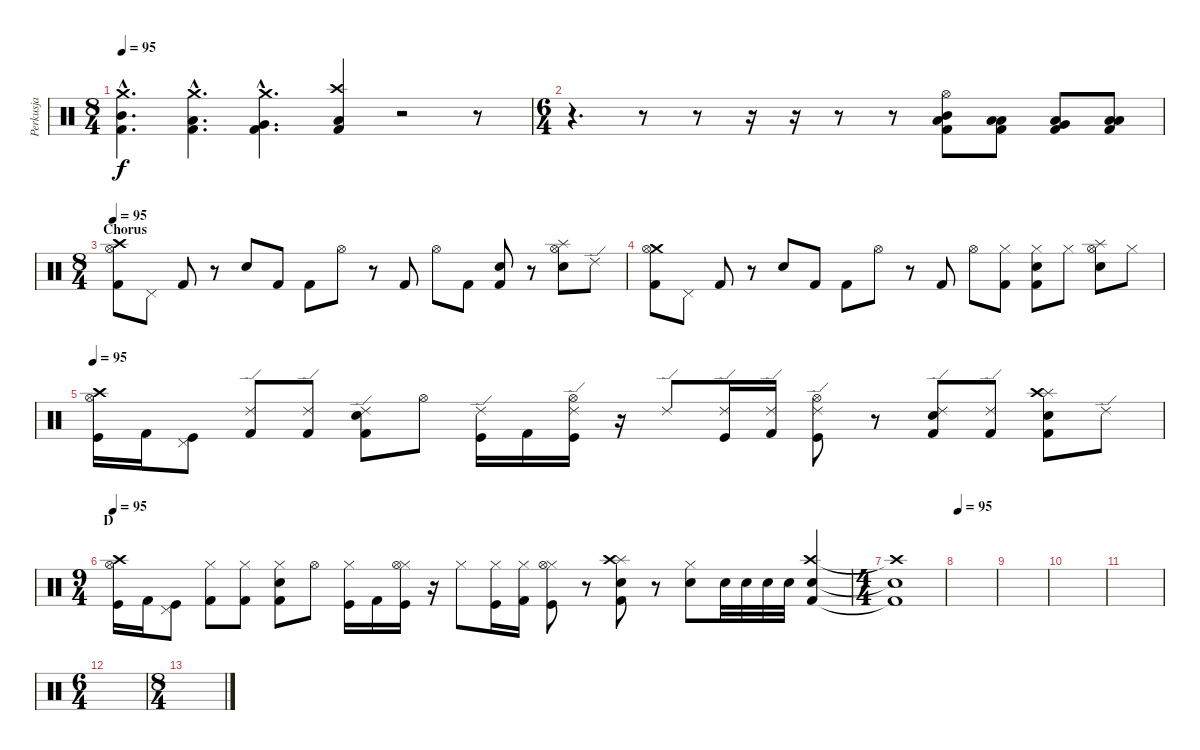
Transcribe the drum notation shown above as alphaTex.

\track ("Perkusja" "Perkusja") {instrument percussion}
\staff {score}
\articulation defaults
\ts (8 4)
\tempo 95
\clef neutral
\ks c
("Crash medium (hit)"{hac} "Mid Tom (hit)"{hac} "Kick (hit) 2"{hac}).4{d dy f} ("Crash medium (hit)"{hac} "Low Tom (hit)"{hac} "Kick (hit) 2"{hac}).4{d} ("Crash medium (hit)"{hac} "Very Low Tom (hit)"{hac} "Kick (hit) 2"{hac}).4{d} ("Crash high (hit)" "Low Floor Tom (hit)" "Kick (hit) 2").4 r.2 r.8 |
\ts (6 4)
r.4{d} r.8 r.8 r.16 r.16 r.8 r.8 ("Hi-Hat (open)" "Low Floor Tom (hit)" "Mid Tom (hit)" "Kick (hit) 2").8 ("Low Floor Tom (hit)" "Low Tom (hit)" "Kick (hit) 2").8 ("Low Floor Tom (hit)" "Very Low Tom (hit)" "Kick (hit) 2").8 ("Low Floor Tom (hit)" "Low Floor Tom (hit)" "Kick (hit) 2").8 |
\ts (8 4)
\section ("" "Chorus")
\tempo 95
("Crash high (hit)" "Hi-Hat (open)" "Kick (hit) 2").8 "Pedal Hi-Hat (hit)".8 "Kick (hit) 2".8 r.8 "Electric Snare (hit)".8 "Kick (hit) 2".8 "Kick (hit) 2".8 "Hi-Hat (open)".8 r.8 "Kick (hit) 2".8 "Hi-Hat (open)".8 "Kick (hit) 2".8 ("Electric Snare (hit)" "Kick (hit) 2").8 r.8 ("Splash (hit)" "Hi-Hat (open)" "Electric Snare (hit)").8 "Ride (edge) 2".8 |
("Crash medium (hit)" "Hi-Hat (open)" "Kick (hit) 2").8 "Pedal Hi-Hat (hit)".8 "Kick (hit) 2".8 r.8 "Electric Snare (hit)".8 "Kick (hit) 2".8 "Kick (hit) 2".8 "Hi-Hat (open)".8 r.8 "Kick (hit) 2".8 "Hi-Hat (open)".8 ("Hi-Hat (closed)" "Kick (hit) 2").8 ("Hi-Hat (closed)" "Electric Snare (hit)" "Kick (hit) 2").8 "Hi-Hat (closed)".8 ("Splash (hit)" "Hi-Hat (open)" "Electric Snare (hit)").8 "Hi-Hat (closed)".8 |
\tempo 95
("Crash high (hit)" "Hi-Hat (open)" "Kick (hit)").16 "Kick (hit) 2".16 ("Pedal Hi-Hat (hit)" "Kick (hit)").8 ("Ride (edge) 2" "Kick (hit) 2").8 ("Ride (edge) 2" "Kick (hit) 2").8 ("Ride (edge) 2" "Electric Snare (hit)" "Kick (hit) 2").8 "Hi-Hat (open)".8 ("Ride (edge) 2" "Kick (hit)").16 "Kick (hit) 2".16 ("Ride (edge) 2" "Hi-Hat (open)" "Kick (hit)").16 r.16 "Ride (edge) 2".8 ("Ride (edge) 2" "Kick (hit)").16 ("Ride (edge) 2" "Kick (hit) 2").16 ("Ride (edge) 2" "Hi-Hat (open)" "Kick (hit)").8 r.8 ("Ride (edge) 2" "Electric Snare (hit)" "Kick (hit) 2").8 ("Ride (edge) 2" "Kick (hit) 2").8 ("Splash (hit)" "Crash high (hit)" "Electric Snare (hit)" "Kick (hit) 2").8 "Ride (edge) 2".8 |
\ts (9 4)
\section ("" "D")
\tempo 95
("Crash high (hit)" "Hi-Hat (open)" "Kick (hit)").16 "Kick (hit) 2".16 ("Pedal Hi-Hat (hit)" "Kick (hit)").8 ("Hi-Hat (closed)" "Kick (hit) 2").8 ("Hi-Hat (closed)" "Kick (hit) 2").8 ("Hi-Hat (closed)" "Electric Snare (hit)" "Kick (hit) 2").8 "Hi-Hat (open)".8 ("Hi-Hat (closed)" "Kick (hit)").16 "Kick (hit) 2".16 ("Hi-Hat (closed)" "Hi-Hat (open)" "Kick (hit)").16 r.16 "Hi-Hat (closed)".8 ("Hi-Hat (closed)" "Kick (hit)").16 ("Hi-Hat (closed)" "Kick (hit) 2").16 ("Hi-Hat (closed)" "Hi-Hat (open)" "Kick (hit)").8 r.8 ("Splash (hit)" "Crash high (hit)" "Electric Snare (hit)" "Kick (hit) 2").8 r.8 ("Hi-Hat (closed)" "Electric Snare (hit)").8 "Electric Snare (hit)".32 "Electric Snare (hit)".32 "Electric Snare (hit)".32 "Electric Snare (hit)".32 ("Crash high (hit)" "Electric Snare (hit)" "Kick (hit) 2").4 |
\ts (4 4)
("Crash high (hit)"{t} "Electric Snare (hit)"{t} "Kick (hit) 2"{t}).1 |
\tempo 95
|
|
|
|
\ts (6 4)
|
\ts (8 4)
